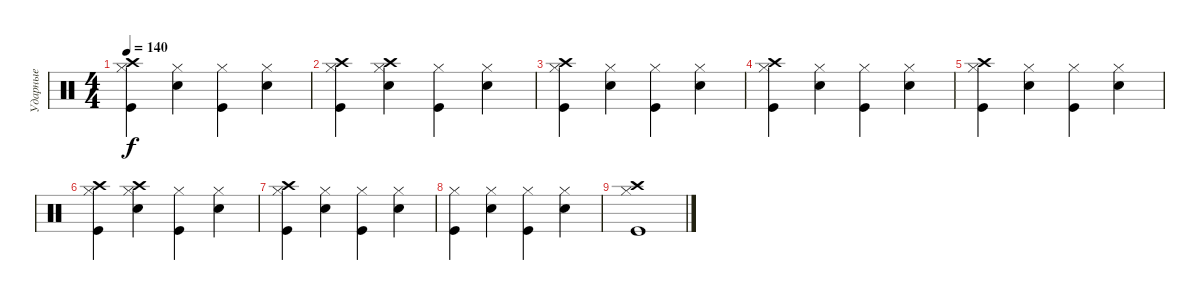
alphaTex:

\track ("Ударные" "Ударные") {instrument percussion}
\staff {score}
\articulation defaults
\ts (4 4)
\tempo 140
\clef neutral
\ks c
("Crash high (hit)" "Hi-Hat (closed)" "Kick (hit)").4{dy f} ("Hi-Hat (closed)" "Snare (hit) 2").4 ("Hi-Hat (closed)" "Kick (hit)").4 ("Hi-Hat (closed)" "Snare (hit) 2").4 |
("Crash high (hit)" "Hi-Hat (closed)" "Kick (hit)").4 ("Crash high (hit)" "Hi-Hat (closed)" "Snare (hit) 2").4 ("Hi-Hat (closed)" "Kick (hit)").4 ("Hi-Hat (closed)" "Snare (hit) 2").4 |
("Crash high (hit)" "Hi-Hat (closed)" "Kick (hit)").4 ("Hi-Hat (closed)" "Snare (hit) 2").4 ("Hi-Hat (closed)" "Kick (hit)").4 ("Hi-Hat (closed)" "Snare (hit) 2").4 |
("Crash high (hit)" "Hi-Hat (closed)" "Kick (hit)").4 ("Hi-Hat (closed)" "Snare (hit) 2").4 ("Hi-Hat (closed)" "Kick (hit)").4 ("Hi-Hat (closed)" "Snare (hit) 2").4 |
("Crash high (hit)" "Hi-Hat (closed)" "Kick (hit)").4 ("Hi-Hat (closed)" "Snare (hit) 2").4 ("Hi-Hat (closed)" "Kick (hit)").4 ("Hi-Hat (closed)" "Snare (hit) 2").4 |
("Crash high (hit)" "Hi-Hat (closed)" "Kick (hit)").4 ("Crash high (hit)" "Hi-Hat (closed)" "Snare (hit) 2").4 ("Hi-Hat (closed)" "Kick (hit)").4 ("Hi-Hat (closed)" "Snare (hit) 2").4 |
("Crash high (hit)" "Hi-Hat (closed)" "Kick (hit)").4 ("Hi-Hat (closed)" "Snare (hit) 2").4 ("Hi-Hat (closed)" "Kick (hit)").4 ("Hi-Hat (closed)" "Snare (hit) 2").4 |
("Hi-Hat (closed)" "Kick (hit)").4 ("Hi-Hat (closed)" "Snare (hit) 2").4 ("Hi-Hat (closed)" "Kick (hit)").4 ("Hi-Hat (closed)" "Snare (hit) 2").4 |
("Crash high (hit)" "Hi-Hat (closed)" "Kick (hit)").1
